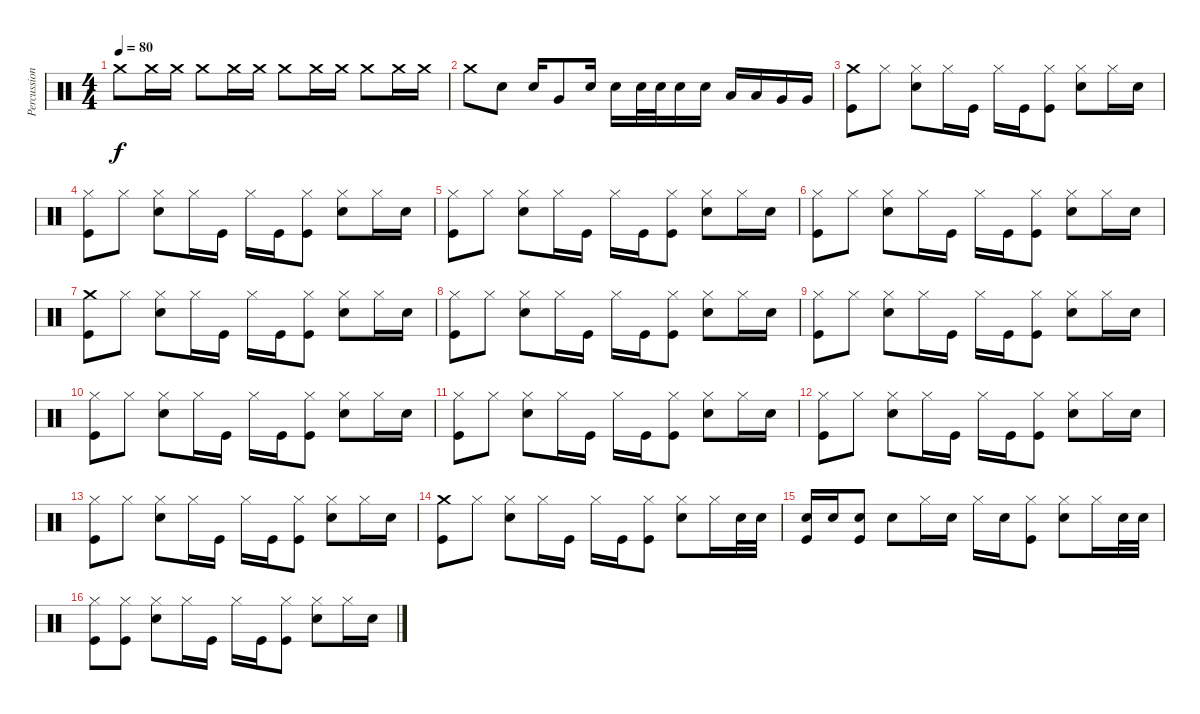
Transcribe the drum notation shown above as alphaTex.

\track ("Percussion" "Percussion") {instrument percussion}
\staff {score}
\articulation defaults
\ts (4 4)
\tempo 80
\clef neutral
\ks c "Crash medium (hit)".8{dy f} "Crash medium (hit)".16 "Crash medium (hit)".16 "Crash medium (hit)".8 "Crash medium (hit)".16 "Crash medium (hit)".16 "Crash medium (hit)".8 "Crash medium (hit)".16 "Crash medium (hit)".16 "Crash medium (hit)".8 "Crash medium (hit)".16 "Crash medium (hit)".16
|
"Crash medium (hit)".8 "Snare (hit) 2".8 "Snare (hit) 2".16 "Very Low Tom (hit)".8 "Snare (hit) 2".16 "Snare (hit) 2".16 "Snare (hit) 2".32 "Snare (hit) 2".32 "Snare (hit) 2".16 "Snare (hit) 2".16 "Low Tom (hit)".16 "Low Tom (hit)".16 "Very Low Tom (hit)".16 "Very Low Tom (hit)".16 |
("Crash medium (hit)" "Kick (hit)").8 "Hi-Hat (closed)".8 ("Hi-Hat (closed)" "Snare (hit) 2").8 "Hi-Hat (closed)".16 "Kick (hit)".16 "Hi-Hat (closed)".16 "Kick (hit)".16 ("Hi-Hat (closed)" "Kick (hit)").8 ("Hi-Hat (closed)" "Snare (hit) 2").8 "Hi-Hat (closed)".16 "Snare (hit) 2".16 |
("Hi-Hat (closed)" "Kick (hit)").8 "Hi-Hat (closed)".8 ("Hi-Hat (closed)" "Snare (hit) 2").8 "Hi-Hat (closed)".16 "Kick (hit)".16 "Hi-Hat (closed)".16 "Kick (hit)".16 ("Hi-Hat (closed)" "Kick (hit)").8 ("Hi-Hat (closed)" "Snare (hit) 2").8 "Hi-Hat (closed)".16 "Snare (hit) 2".16 |
("Hi-Hat (closed)" "Kick (hit)").8 "Hi-Hat (closed)".8 ("Hi-Hat (closed)" "Snare (hit) 2").8 "Hi-Hat (closed)".16 "Kick (hit)".16 "Hi-Hat (closed)".16 "Kick (hit)".16 ("Hi-Hat (closed)" "Kick (hit)").8 ("Hi-Hat (closed)" "Snare (hit) 2").8 "Hi-Hat (closed)".16 "Snare (hit) 2".16 |
("Hi-Hat (closed)" "Kick (hit)").8 "Hi-Hat (closed)".8 ("Hi-Hat (closed)" "Snare (hit) 2").8 "Hi-Hat (closed)".16 "Kick (hit)".16 "Hi-Hat (closed)".16 "Kick (hit)".16 ("Hi-Hat (closed)" "Kick (hit)").8 ("Hi-Hat (closed)" "Snare (hit) 2").8 "Hi-Hat (closed)".16 "Snare (hit) 2".16 |
("Crash medium (hit)" "Kick (hit)").8 "Hi-Hat (closed)".8 ("Hi-Hat (closed)" "Snare (hit) 2").8 "Hi-Hat (closed)".16 "Kick (hit)".16 "Hi-Hat (closed)".16 "Kick (hit)".16 ("Hi-Hat (closed)" "Kick (hit)").8 ("Hi-Hat (closed)" "Snare (hit) 2").8 "Hi-Hat (closed)".16 "Snare (hit) 2".16 |
("Hi-Hat (closed)" "Kick (hit)").8 "Hi-Hat (closed)".8 ("Hi-Hat (closed)" "Snare (hit) 2").8 "Hi-Hat (closed)".16 "Kick (hit)".16 "Hi-Hat (closed)".16 "Kick (hit)".16 ("Hi-Hat (closed)" "Kick (hit)").8 ("Hi-Hat (closed)" "Snare (hit) 2").8 "Hi-Hat (closed)".16 "Snare (hit) 2".16 |
("Hi-Hat (closed)" "Kick (hit)").8 "Hi-Hat (closed)".8 ("Hi-Hat (closed)" "Snare (hit) 2").8 "Hi-Hat (closed)".16 "Kick (hit)".16 "Hi-Hat (closed)".16 "Kick (hit)".16 ("Hi-Hat (closed)" "Kick (hit)").8 ("Hi-Hat (closed)" "Snare (hit) 2").8 "Hi-Hat (closed)".16 "Snare (hit) 2".16 |
("Hi-Hat (closed)" "Kick (hit)").8 "Hi-Hat (closed)".8 ("Hi-Hat (closed)" "Snare (hit) 2").8 "Hi-Hat (closed)".16 "Kick (hit)".16 "Hi-Hat (closed)".16 "Kick (hit)".16 ("Hi-Hat (closed)" "Kick (hit)").8 ("Hi-Hat (closed)" "Snare (hit) 2").8 "Hi-Hat (closed)".16 "Snare (hit) 2".16 |
("Hi-Hat (closed)" "Kick (hit)").8 "Hi-Hat (closed)".8 ("Hi-Hat (closed)" "Snare (hit) 2").8 "Hi-Hat (closed)".16 "Kick (hit)".16 "Hi-Hat (closed)".16 "Kick (hit)".16 ("Hi-Hat (closed)" "Kick (hit)").8 ("Hi-Hat (closed)" "Snare (hit) 2").8 "Hi-Hat (closed)".16 "Snare (hit) 2".16 |
("Hi-Hat (closed)" "Kick (hit)").8 "Hi-Hat (closed)".8 ("Hi-Hat (closed)" "Snare (hit) 2").8 "Hi-Hat (closed)".16 "Kick (hit)".16 "Hi-Hat (closed)".16 "Kick (hit)".16 ("Hi-Hat (closed)" "Kick (hit)").8 ("Hi-Hat (closed)" "Snare (hit) 2").8 "Hi-Hat (closed)".16 "Snare (hit) 2".16 |
("Hi-Hat (closed)" "Kick (hit)").8 "Hi-Hat (closed)".8 ("Hi-Hat (closed)" "Snare (hit) 2").8 "Hi-Hat (closed)".16 "Kick (hit)".16 "Hi-Hat (closed)".16 "Kick (hit)".16 ("Hi-Hat (closed)" "Kick (hit)").8 ("Hi-Hat (closed)" "Snare (hit) 2").8 "Hi-Hat (closed)".16 "Snare (hit) 2".16 |
("Crash medium (hit)" "Kick (hit)").8 "Hi-Hat (closed)".8 ("Hi-Hat (closed)" "Snare (hit) 2").8 "Hi-Hat (closed)".16 "Kick (hit)".16 "Hi-Hat (closed)".16 "Kick (hit)".16 ("Hi-Hat (closed)" "Kick (hit)").8 ("Hi-Hat (closed)" "Snare (hit) 2").8 "Hi-Hat (closed)".16 "Snare (hit) 2".32 "Snare (hit) 2".32 |
("Snare (hit) 2" "Kick (hit)").16 "Snare (hit) 2".16 ("Snare (hit) 2" "Kick (hit)").8 "Snare (hit) 2".8 "Hi-Hat (closed)".16 "Snare (hit) 2".16 "Hi-Hat (closed)".16 "Snare (hit) 2".16 ("Hi-Hat (closed)" "Kick (hit)").8 ("Hi-Hat (closed)" "Snare (hit) 2").8 "Hi-Hat (closed)".16 "Snare (hit) 2".32 "Snare (hit) 2".32 |
("Hi-Hat (closed)" "Kick (hit)").8 ("Hi-Hat (closed)" "Kick (hit)").8 ("Hi-Hat (closed)" "Snare (hit) 2").8 "Hi-Hat (closed)".16 "Kick (hit)".16 "Hi-Hat (closed)".16 "Kick (hit)".16 ("Hi-Hat (closed)" "Kick (hit)").8 ("Hi-Hat (closed)" "Snare (hit) 2").8 "Hi-Hat (closed)".16 "Snare (hit) 2".16
